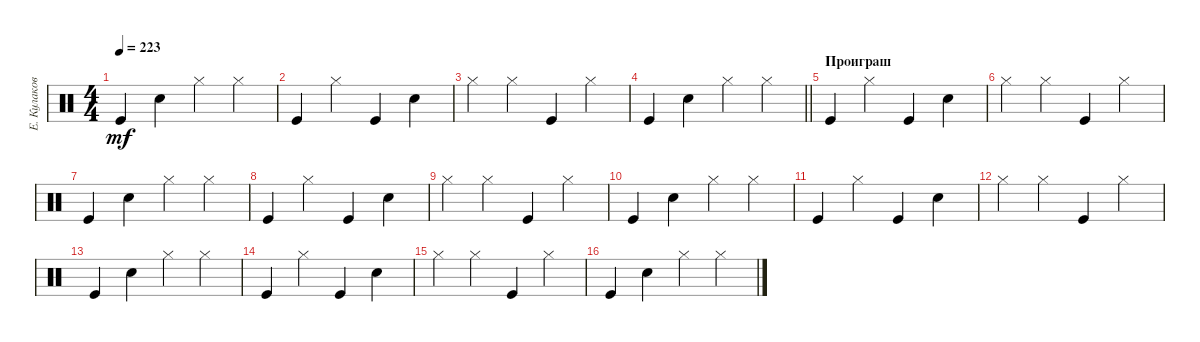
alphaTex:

\track ("Е. Кулаков" "Е. Кулаков") {instrument percussion}
\staff {score}
\articulation defaults
\ts (4 4)
\tempo 223
\clef neutral
\ks c "Kick (hit)".4{dy mf} "Snare (hit) 2".4 "Hi-Hat (closed)".4 "Hi-Hat (closed)".4
|
"Kick (hit)".4 "Hi-Hat (closed)".4 "Kick (hit)".4 "Snare (hit) 2".4 |
"Hi-Hat (closed)".4 "Hi-Hat (closed)".4 "Kick (hit)".4 "Hi-Hat (closed)".4 |
\barLineRight lightlight "Kick (hit)".4 "Snare (hit) 2".4 "Hi-Hat (closed)".4 "Hi-Hat (closed)".4
|
\section ("" "Проиграш")
"Kick (hit)".4 "Hi-Hat (closed)".4 "Kick (hit)".4 "Snare (hit) 2".4 |
"Hi-Hat (closed)".4 "Hi-Hat (closed)".4 "Kick (hit)".4 "Hi-Hat (closed)".4 |
"Kick (hit)".4 "Snare (hit) 2".4 "Hi-Hat (closed)".4 "Hi-Hat (closed)".4 |
"Kick (hit)".4 "Hi-Hat (closed)".4 "Kick (hit)".4 "Snare (hit) 2".4 |
"Hi-Hat (closed)".4 "Hi-Hat (closed)".4 "Kick (hit)".4 "Hi-Hat (closed)".4 |
"Kick (hit)".4 "Snare (hit) 2".4 "Hi-Hat (closed)".4 "Hi-Hat (closed)".4 |
"Kick (hit)".4 "Hi-Hat (closed)".4 "Kick (hit)".4 "Snare (hit) 2".4 |
"Hi-Hat (closed)".4 "Hi-Hat (closed)".4 "Kick (hit)".4 "Hi-Hat (closed)".4 |
"Kick (hit)".4 "Snare (hit) 2".4 "Hi-Hat (closed)".4 "Hi-Hat (closed)".4 |
"Kick (hit)".4 "Hi-Hat (closed)".4 "Kick (hit)".4 "Snare (hit) 2".4 |
"Hi-Hat (closed)".4 "Hi-Hat (closed)".4 "Kick (hit)".4 "Hi-Hat (closed)".4 |
"Kick (hit)".4 "Snare (hit) 2".4 "Hi-Hat (closed)".4 "Hi-Hat (closed)".4
